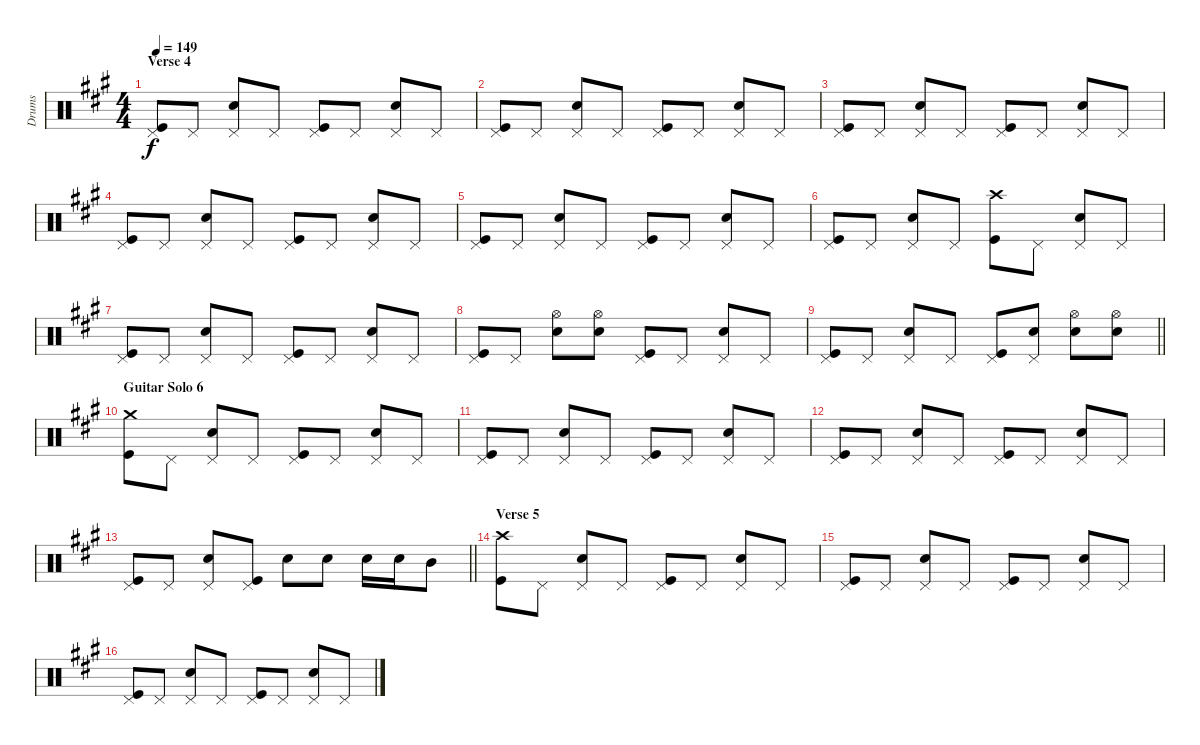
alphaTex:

\track ("Drums" "Drums") {instrument percussion}
\staff {score}
\articulation defaults
\ts (4 4)
\section ("" "Verse 4")
\tempo 149
\clef neutral
\ks f#minor
("Pedal Hi-Hat (hit)" "Kick (hit)").8{dy f} "Pedal Hi-Hat (hit)".8 ("Pedal Hi-Hat (hit)" "Snare (hit) 2").8 "Pedal Hi-Hat (hit)".8 ("Pedal Hi-Hat (hit)" "Kick (hit)").8 "Pedal Hi-Hat (hit)".8 ("Pedal Hi-Hat (hit)" "Snare (hit) 2").8 "Pedal Hi-Hat (hit)".8 |
("Pedal Hi-Hat (hit)" "Kick (hit)").8 "Pedal Hi-Hat (hit)".8 ("Pedal Hi-Hat (hit)" "Snare (hit) 2").8 "Pedal Hi-Hat (hit)".8 ("Pedal Hi-Hat (hit)" "Kick (hit)").8 "Pedal Hi-Hat (hit)".8 ("Pedal Hi-Hat (hit)" "Snare (hit) 2").8 "Pedal Hi-Hat (hit)".8 |
("Pedal Hi-Hat (hit)" "Kick (hit)").8 "Pedal Hi-Hat (hit)".8 ("Pedal Hi-Hat (hit)" "Snare (hit) 2").8 "Pedal Hi-Hat (hit)".8 ("Pedal Hi-Hat (hit)" "Kick (hit)").8 "Pedal Hi-Hat (hit)".8 ("Pedal Hi-Hat (hit)" "Snare (hit) 2").8 "Pedal Hi-Hat (hit)".8 |
("Pedal Hi-Hat (hit)" "Kick (hit)").8 "Pedal Hi-Hat (hit)".8 ("Pedal Hi-Hat (hit)" "Snare (hit) 2").8 "Pedal Hi-Hat (hit)".8 ("Pedal Hi-Hat (hit)" "Kick (hit)").8 "Pedal Hi-Hat (hit)".8 ("Pedal Hi-Hat (hit)" "Snare (hit) 2").8 "Pedal Hi-Hat (hit)".8 |
("Pedal Hi-Hat (hit)" "Kick (hit)").8 "Pedal Hi-Hat (hit)".8 ("Pedal Hi-Hat (hit)" "Snare (hit) 2").8 "Pedal Hi-Hat (hit)".8 ("Pedal Hi-Hat (hit)" "Kick (hit)").8 "Pedal Hi-Hat (hit)".8 ("Pedal Hi-Hat (hit)" "Snare (hit) 2").8 "Pedal Hi-Hat (hit)".8 |
("Pedal Hi-Hat (hit)" "Kick (hit)").8 "Pedal Hi-Hat (hit)".8 ("Pedal Hi-Hat (hit)" "Snare (hit) 2").8 "Pedal Hi-Hat (hit)".8 ("Crash high (hit)" "Kick (hit)").8 "Pedal Hi-Hat (hit)".8 ("Pedal Hi-Hat (hit)" "Snare (hit) 2").8 "Pedal Hi-Hat (hit)".8 |
("Pedal Hi-Hat (hit)" "Kick (hit)").8 "Pedal Hi-Hat (hit)".8 ("Pedal Hi-Hat (hit)" "Snare (hit) 2").8 "Pedal Hi-Hat (hit)".8 ("Pedal Hi-Hat (hit)" "Kick (hit)").8 "Pedal Hi-Hat (hit)".8 ("Pedal Hi-Hat (hit)" "Snare (hit) 2").8 "Pedal Hi-Hat (hit)".8 |
("Pedal Hi-Hat (hit)" "Kick (hit)").8 "Pedal Hi-Hat (hit)".8 ("Hi-Hat (open)" "Snare (hit) 2").8 ("Hi-Hat (open)" "Snare (hit) 2").8 ("Pedal Hi-Hat (hit)" "Kick (hit)").8 "Pedal Hi-Hat (hit)".8 ("Pedal Hi-Hat (hit)" "Snare (hit) 2").8 "Pedal Hi-Hat (hit)".8 |
\barLineRight lightlight
("Pedal Hi-Hat (hit)" "Kick (hit)").8 "Pedal Hi-Hat (hit)".8 ("Pedal Hi-Hat (hit)" "Snare (hit) 2").8 "Pedal Hi-Hat (hit)".8 ("Pedal Hi-Hat (hit)" "Kick (hit)").8 ("Pedal Hi-Hat (hit)" "Snare (hit) 2").8 ("Hi-Hat (open)" "Snare (hit) 2").8 ("Hi-Hat (open)" "Snare (hit) 2").8 |
\section ("" "Guitar Solo 6")
("Crash medium (hit)" "Kick (hit)").8 "Pedal Hi-Hat (hit)".8 ("Pedal Hi-Hat (hit)" "Snare (hit) 2").8 "Pedal Hi-Hat (hit)".8 ("Pedal Hi-Hat (hit)" "Kick (hit)").8 "Pedal Hi-Hat (hit)".8 ("Pedal Hi-Hat (hit)" "Snare (hit) 2").8 "Pedal Hi-Hat (hit)".8 |
("Pedal Hi-Hat (hit)" "Kick (hit)").8 "Pedal Hi-Hat (hit)".8 ("Pedal Hi-Hat (hit)" "Snare (hit) 2").8 "Pedal Hi-Hat (hit)".8 ("Pedal Hi-Hat (hit)" "Kick (hit)").8 "Pedal Hi-Hat (hit)".8 ("Pedal Hi-Hat (hit)" "Snare (hit) 2").8 "Pedal Hi-Hat (hit)".8 |
("Pedal Hi-Hat (hit)" "Kick (hit)").8 "Pedal Hi-Hat (hit)".8 ("Pedal Hi-Hat (hit)" "Snare (hit) 2").8 "Pedal Hi-Hat (hit)".8 ("Pedal Hi-Hat (hit)" "Kick (hit)").8 "Pedal Hi-Hat (hit)".8 ("Pedal Hi-Hat (hit)" "Snare (hit) 2").8 "Pedal Hi-Hat (hit)".8 |
\barLineRight lightlight
("Pedal Hi-Hat (hit)" "Kick (hit)").8 "Pedal Hi-Hat (hit)".8 ("Pedal Hi-Hat (hit)" "Snare (hit) 2").8 ("Pedal Hi-Hat (hit)" "Kick (hit)").8 "Snare (hit) 2".8 "Snare (hit) 2".8 "Snare (hit) 2".16 "Snare (hit) 2".16 "Mid Tom (hit)".8 |
\section ("" "Verse 5")
("Crash high (hit)" "Kick (hit)").8 "Pedal Hi-Hat (hit)".8 ("Pedal Hi-Hat (hit)" "Snare (hit) 2").8 "Pedal Hi-Hat (hit)".8 ("Pedal Hi-Hat (hit)" "Kick (hit)").8 "Pedal Hi-Hat (hit)".8 ("Pedal Hi-Hat (hit)" "Snare (hit) 2").8 "Pedal Hi-Hat (hit)".8 |
("Pedal Hi-Hat (hit)" "Kick (hit)").8 "Pedal Hi-Hat (hit)".8 ("Pedal Hi-Hat (hit)" "Snare (hit) 2").8 "Pedal Hi-Hat (hit)".8 ("Pedal Hi-Hat (hit)" "Kick (hit)").8 "Pedal Hi-Hat (hit)".8 ("Pedal Hi-Hat (hit)" "Snare (hit) 2").8 "Pedal Hi-Hat (hit)".8 |
("Pedal Hi-Hat (hit)" "Kick (hit)").8 "Pedal Hi-Hat (hit)".8 ("Pedal Hi-Hat (hit)" "Snare (hit) 2").8 "Pedal Hi-Hat (hit)".8 ("Pedal Hi-Hat (hit)" "Kick (hit)").8 "Pedal Hi-Hat (hit)".8 ("Pedal Hi-Hat (hit)" "Snare (hit) 2").8 "Pedal Hi-Hat (hit)".8
